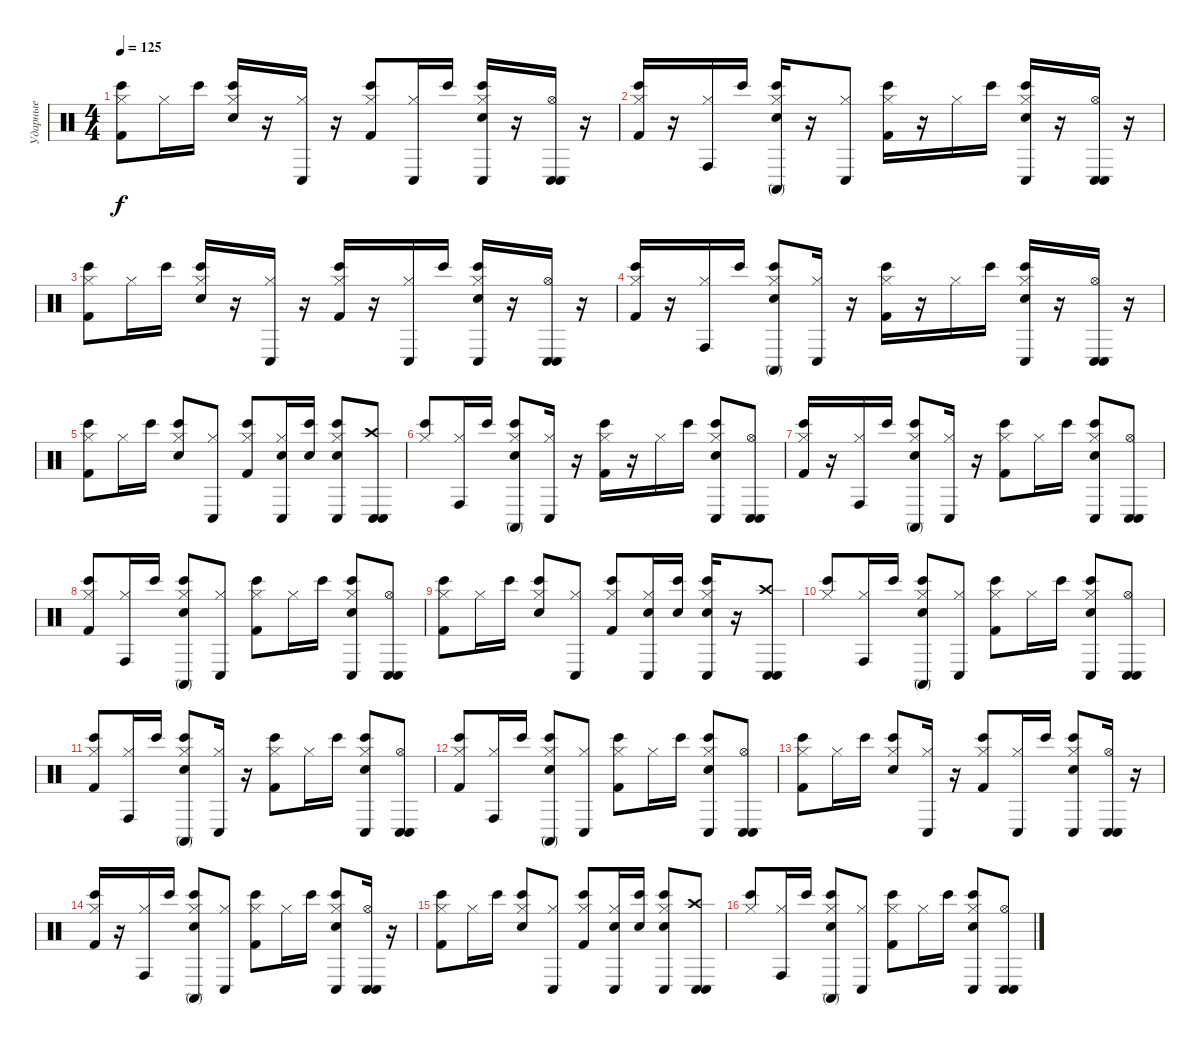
\track ("Ударные" "Ударные") {instrument percussion}
\staff {score}
\articulation defaults
\ts (4 4)
\tempo 125
\clef neutral
\ks c
("Hi-Hat (closed)" "Bongo High (hit)" "Kick (hit) 2").8{dy f} "Hi-Hat (closed)".16 "Bongo High (hit)".16 ("Hi-Hat (closed)" "Bongo High (hit)" "Electric Snare (hit)").16 r.16 ("Hi-Hat (closed)" "Conga low (hit)").16 r.16 ("Hi-Hat (closed)" "Bongo High (hit)" "Kick (hit) 2").8 ("Hi-Hat (closed)" "Conga low (hit)").16 "Bongo High (hit)".16 ("Hi-Hat (closed)" "Bongo High (hit)" "Conga low (hit)" "Electric Snare (hit)").16 r.16 ("Hi-Hat (open)" "Conga low (hit)" "Conga low (hit)").16 r.16 |
("Hi-Hat (closed)" "Bongo High (hit)" "Kick (hit) 2").16 r.16 ("Hi-Hat (closed)" "Conga high (hit)").16 "Bongo High (hit)".16 ("Hi-Hat (closed)" "Bongo High (hit)" "Conga high (mute)" "Electric Snare (hit)").16 r.16 ("Hi-Hat (closed)" "Conga low (hit)").8 ("Hi-Hat (closed)" "Bongo High (hit)" "Kick (hit) 2").16 r.16 "Hi-Hat (closed)".16 "Bongo High (hit)".16 ("Hi-Hat (closed)" "Bongo High (hit)" "Conga low (hit)" "Electric Snare (hit)").16 r.16 ("Hi-Hat (open)" "Conga low (hit)" "Conga low (hit)").16 r.16 |
("Hi-Hat (closed)" "Bongo High (hit)" "Kick (hit) 2").8 "Hi-Hat (closed)".16 "Bongo High (hit)".16 ("Hi-Hat (closed)" "Bongo High (hit)" "Electric Snare (hit)").16 r.16 ("Hi-Hat (closed)" "Conga low (hit)").16 r.16 ("Hi-Hat (closed)" "Bongo High (hit)" "Kick (hit) 2").16 r.16 ("Hi-Hat (closed)" "Conga low (hit)").16 "Bongo High (hit)".16 ("Hi-Hat (closed)" "Bongo High (hit)" "Conga low (hit)" "Electric Snare (hit)").16 r.16 ("Hi-Hat (open)" "Conga low (hit)" "Conga low (hit)").16 r.16 |
("Hi-Hat (closed)" "Bongo High (hit)" "Kick (hit) 2").16 r.16 ("Hi-Hat (closed)" "Conga high (hit)").16 "Bongo High (hit)".16 ("Hi-Hat (closed)" "Bongo High (hit)" "Conga high (mute)" "Electric Snare (hit)").8 ("Hi-Hat (closed)" "Conga low (hit)").16 r.16 ("Hi-Hat (closed)" "Bongo High (hit)" "Kick (hit) 2").16 r.16 "Hi-Hat (closed)".16 "Bongo High (hit)".16 ("Hi-Hat (closed)" "Bongo High (hit)" "Conga low (hit)" "Electric Snare (hit)").16 r.16 ("Hi-Hat (open)" "Conga low (hit)" "Conga low (hit)").16 r.16 |
("Hi-Hat (closed)" "Bongo High (hit)" "Kick (hit) 2").8 "Hi-Hat (closed)".16 "Bongo High (hit)".16 ("Hi-Hat (closed)" "Bongo High (hit)" "Electric Snare (hit)").8 ("Hi-Hat (closed)" "Conga low (hit)").8 ("Hi-Hat (closed)" "Bongo High (hit)" "Kick (hit) 2").8 ("Hi-Hat (closed)" "Conga low (hit)" "Electric Snare (hit)").16 ("Bongo High (hit)" "Electric Snare (hit)").16 ("Hi-Hat (closed)" "Bongo High (hit)" "Conga low (hit)" "Electric Snare (hit)").8 ("Crash high (hit)" "Conga low (hit)" "Conga low (hit)").8 |
("Hi-Hat (closed)" "Bongo High (hit)").8 ("Hi-Hat (closed)" "Conga high (hit)").16 "Bongo High (hit)".16 ("Hi-Hat (closed)" "Bongo High (hit)" "Conga high (mute)" "Electric Snare (hit)").8 ("Hi-Hat (closed)" "Conga low (hit)").16 r.16 ("Hi-Hat (closed)" "Bongo High (hit)" "Kick (hit) 2").16 r.16 "Hi-Hat (closed)".16 "Bongo High (hit)".16 ("Hi-Hat (closed)" "Bongo High (hit)" "Conga low (hit)" "Electric Snare (hit)").8 ("Hi-Hat (open)" "Conga low (hit)" "Conga low (hit)").8 |
("Hi-Hat (closed)" "Bongo High (hit)" "Kick (hit) 2").16 r.16 ("Hi-Hat (closed)" "Conga high (hit)").16 "Bongo High (hit)".16 ("Hi-Hat (closed)" "Bongo High (hit)" "Conga high (mute)" "Electric Snare (hit)").8 ("Hi-Hat (closed)" "Conga low (hit)").16 r.16 ("Hi-Hat (closed)" "Bongo High (hit)" "Kick (hit) 2").8 "Hi-Hat (closed)".16 "Bongo High (hit)".16 ("Hi-Hat (closed)" "Bongo High (hit)" "Conga low (hit)" "Electric Snare (hit)").8 ("Hi-Hat (open)" "Conga low (hit)" "Conga low (hit)").8 |
("Hi-Hat (closed)" "Bongo High (hit)" "Kick (hit) 2").8 ("Hi-Hat (closed)" "Conga high (hit)").16 "Bongo High (hit)".16 ("Hi-Hat (closed)" "Bongo High (hit)" "Conga high (mute)" "Electric Snare (hit)").8 ("Hi-Hat (closed)" "Conga low (hit)").8 ("Hi-Hat (closed)" "Bongo High (hit)" "Kick (hit) 2").8 "Hi-Hat (closed)".16 "Bongo High (hit)".16 ("Hi-Hat (closed)" "Bongo High (hit)" "Conga low (hit)" "Electric Snare (hit)").8 ("Hi-Hat (open)" "Conga low (hit)" "Conga low (hit)").8 |
("Hi-Hat (closed)" "Bongo High (hit)" "Kick (hit) 2").8 "Hi-Hat (closed)".16 "Bongo High (hit)".16 ("Hi-Hat (closed)" "Bongo High (hit)" "Electric Snare (hit)").8 ("Hi-Hat (closed)" "Conga low (hit)").8 ("Hi-Hat (closed)" "Bongo High (hit)" "Kick (hit) 2").8 ("Hi-Hat (closed)" "Conga low (hit)" "Electric Snare (hit)").16 ("Bongo High (hit)" "Electric Snare (hit)").16 ("Hi-Hat (closed)" "Bongo High (hit)" "Conga low (hit)" "Electric Snare (hit)").16 r.16 ("Crash high (hit)" "Conga low (hit)" "Conga low (hit)").8 |
("Hi-Hat (closed)" "Bongo High (hit)").8 ("Hi-Hat (closed)" "Conga high (hit)").16 "Bongo High (hit)".16 ("Hi-Hat (closed)" "Bongo High (hit)" "Conga high (mute)" "Electric Snare (hit)").8 ("Hi-Hat (closed)" "Conga low (hit)").8 ("Hi-Hat (closed)" "Bongo High (hit)" "Kick (hit) 2").8 "Hi-Hat (closed)".16 "Bongo High (hit)".16 ("Hi-Hat (closed)" "Bongo High (hit)" "Conga low (hit)" "Electric Snare (hit)").8 ("Hi-Hat (open)" "Conga low (hit)" "Conga low (hit)").8 |
("Hi-Hat (closed)" "Bongo High (hit)" "Kick (hit) 2").8 ("Hi-Hat (closed)" "Conga high (hit)").16 "Bongo High (hit)".16 ("Hi-Hat (closed)" "Bongo High (hit)" "Conga high (mute)" "Electric Snare (hit)").8 ("Hi-Hat (closed)" "Conga low (hit)").16 r.16 ("Hi-Hat (closed)" "Bongo High (hit)" "Kick (hit) 2").8 "Hi-Hat (closed)".16 "Bongo High (hit)".16 ("Hi-Hat (closed)" "Bongo High (hit)" "Conga low (hit)" "Electric Snare (hit)").8 ("Hi-Hat (open)" "Conga low (hit)" "Conga low (hit)").8 |
("Hi-Hat (closed)" "Bongo High (hit)" "Kick (hit) 2").8 ("Hi-Hat (closed)" "Conga high (hit)").16 "Bongo High (hit)".16 ("Hi-Hat (closed)" "Bongo High (hit)" "Conga high (mute)" "Electric Snare (hit)").8 ("Hi-Hat (closed)" "Conga low (hit)").8 ("Hi-Hat (closed)" "Bongo High (hit)" "Kick (hit) 2").8 "Hi-Hat (closed)".16 "Bongo High (hit)".16 ("Hi-Hat (closed)" "Bongo High (hit)" "Conga low (hit)" "Electric Snare (hit)").8 ("Hi-Hat (open)" "Conga low (hit)" "Conga low (hit)").8 |
("Hi-Hat (closed)" "Bongo High (hit)" "Kick (hit) 2").8 "Hi-Hat (closed)".16 "Bongo High (hit)".16 ("Hi-Hat (closed)" "Bongo High (hit)" "Electric Snare (hit)").8 ("Hi-Hat (closed)" "Conga low (hit)").16 r.16 ("Hi-Hat (closed)" "Bongo High (hit)" "Kick (hit) 2").8 ("Hi-Hat (closed)" "Conga low (hit)").16 "Bongo High (hit)".16 ("Hi-Hat (closed)" "Bongo High (hit)" "Conga low (hit)" "Electric Snare (hit)").8 ("Hi-Hat (open)" "Conga low (hit)" "Conga low (hit)").16 r.16 |
("Hi-Hat (closed)" "Bongo High (hit)" "Kick (hit) 2").16 r.16 ("Hi-Hat (closed)" "Conga high (hit)").16 "Bongo High (hit)".16 ("Hi-Hat (closed)" "Bongo High (hit)" "Conga high (mute)" "Electric Snare (hit)").8 ("Hi-Hat (closed)" "Conga low (hit)").8 ("Hi-Hat (closed)" "Bongo High (hit)" "Kick (hit) 2").8 "Hi-Hat (closed)".16 "Bongo High (hit)".16 ("Hi-Hat (closed)" "Bongo High (hit)" "Conga low (hit)" "Electric Snare (hit)").8 ("Hi-Hat (open)" "Conga low (hit)" "Conga low (hit)").16 r.16 |
("Hi-Hat (closed)" "Bongo High (hit)" "Kick (hit) 2").8 "Hi-Hat (closed)".16 "Bongo High (hit)".16 ("Hi-Hat (closed)" "Bongo High (hit)" "Electric Snare (hit)").8 ("Hi-Hat (closed)" "Conga low (hit)").8 ("Hi-Hat (closed)" "Bongo High (hit)" "Kick (hit) 2").8 ("Hi-Hat (closed)" "Conga low (hit)" "Electric Snare (hit)").16 ("Bongo High (hit)" "Electric Snare (hit)").16 ("Hi-Hat (closed)" "Bongo High (hit)" "Conga low (hit)" "Electric Snare (hit)").8 ("Crash high (hit)" "Conga low (hit)" "Conga low (hit)").8 |
("Hi-Hat (closed)" "Bongo High (hit)").8 ("Hi-Hat (closed)" "Conga high (hit)").16 "Bongo High (hit)".16 ("Hi-Hat (closed)" "Bongo High (hit)" "Conga high (mute)" "Electric Snare (hit)").8 ("Hi-Hat (closed)" "Conga low (hit)").8 ("Hi-Hat (closed)" "Bongo High (hit)" "Kick (hit) 2").8 "Hi-Hat (closed)".16 "Bongo High (hit)".16 ("Hi-Hat (closed)" "Bongo High (hit)" "Conga low (hit)" "Electric Snare (hit)").8 ("Hi-Hat (open)" "Conga low (hit)" "Conga low (hit)").8
